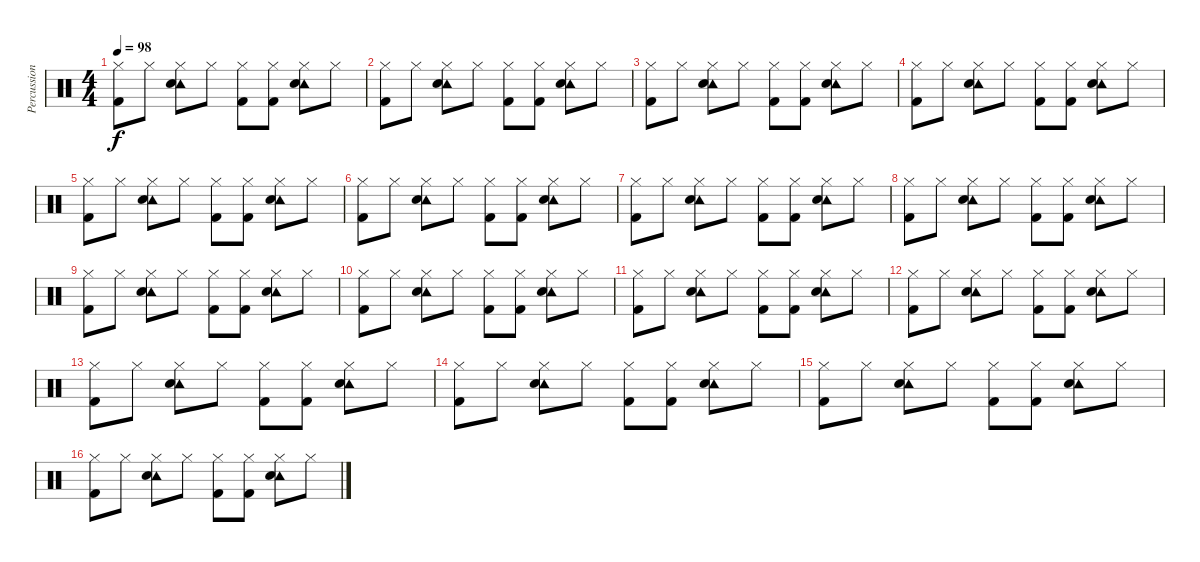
\track ("Percussion" "Percussion") {instrument percussion}
\staff {score}
\articulation defaults
\ts (4 4)
\tempo 98
\clef neutral
\ks c
("Hi-Hat (closed)" "Kick (hit) 2").8{dy f} "Hi-Hat (closed)".8 ("Tambourine (hit)" "Hi-Hat (closed)" "Snare (hit) 2").8 "Hi-Hat (closed)".8 ("Hi-Hat (closed)" "Kick (hit) 2").8 ("Hi-Hat (closed)" "Kick (hit) 2").8 ("Tambourine (hit)" "Hi-Hat (closed)" "Snare (hit) 2").8 "Hi-Hat (closed)".8 |
("Hi-Hat (closed)" "Kick (hit) 2").8 "Hi-Hat (closed)".8 ("Tambourine (hit)" "Hi-Hat (closed)" "Snare (hit) 2").8 "Hi-Hat (closed)".8 ("Hi-Hat (closed)" "Kick (hit) 2").8 ("Hi-Hat (closed)" "Kick (hit) 2").8 ("Tambourine (hit)" "Hi-Hat (closed)" "Snare (hit) 2").8 "Hi-Hat (closed)".8 |
("Hi-Hat (closed)" "Kick (hit) 2").8 "Hi-Hat (closed)".8 ("Tambourine (hit)" "Hi-Hat (closed)" "Snare (hit) 2").8 "Hi-Hat (closed)".8 ("Hi-Hat (closed)" "Kick (hit) 2").8 ("Hi-Hat (closed)" "Kick (hit) 2").8 ("Tambourine (hit)" "Hi-Hat (closed)" "Snare (hit) 2").8 "Hi-Hat (closed)".8 |
("Hi-Hat (closed)" "Kick (hit) 2").8 "Hi-Hat (closed)".8 ("Tambourine (hit)" "Hi-Hat (closed)" "Snare (hit) 2").8 "Hi-Hat (closed)".8 ("Hi-Hat (closed)" "Kick (hit) 2").8 ("Hi-Hat (closed)" "Kick (hit) 2").8 ("Tambourine (hit)" "Hi-Hat (closed)" "Snare (hit) 2").8 "Hi-Hat (closed)".8 |
("Hi-Hat (closed)" "Kick (hit) 2").8 "Hi-Hat (closed)".8 ("Tambourine (hit)" "Hi-Hat (closed)" "Snare (hit) 2").8 "Hi-Hat (closed)".8 ("Hi-Hat (closed)" "Kick (hit) 2").8 ("Hi-Hat (closed)" "Kick (hit) 2").8 ("Tambourine (hit)" "Hi-Hat (closed)" "Snare (hit) 2").8 "Hi-Hat (closed)".8 |
("Hi-Hat (closed)" "Kick (hit) 2").8 "Hi-Hat (closed)".8 ("Tambourine (hit)" "Hi-Hat (closed)" "Snare (hit) 2").8 "Hi-Hat (closed)".8 ("Hi-Hat (closed)" "Kick (hit) 2").8 ("Hi-Hat (closed)" "Kick (hit) 2").8 ("Tambourine (hit)" "Hi-Hat (closed)" "Snare (hit) 2").8 "Hi-Hat (closed)".8 |
("Hi-Hat (closed)" "Kick (hit) 2").8 "Hi-Hat (closed)".8 ("Tambourine (hit)" "Hi-Hat (closed)" "Snare (hit) 2").8 "Hi-Hat (closed)".8 ("Hi-Hat (closed)" "Kick (hit) 2").8 ("Hi-Hat (closed)" "Kick (hit) 2").8 ("Tambourine (hit)" "Hi-Hat (closed)" "Snare (hit) 2").8 "Hi-Hat (closed)".8 |
("Hi-Hat (closed)" "Kick (hit) 2").8 "Hi-Hat (closed)".8 ("Tambourine (hit)" "Hi-Hat (closed)" "Snare (hit) 2").8 "Hi-Hat (closed)".8 ("Hi-Hat (closed)" "Kick (hit) 2").8 ("Hi-Hat (closed)" "Kick (hit) 2").8 ("Tambourine (hit)" "Hi-Hat (closed)" "Snare (hit) 2").8 "Hi-Hat (closed)".8 |
("Hi-Hat (closed)" "Kick (hit) 2").8 "Hi-Hat (closed)".8 ("Tambourine (hit)" "Hi-Hat (closed)" "Snare (hit) 2").8 "Hi-Hat (closed)".8 ("Hi-Hat (closed)" "Kick (hit) 2").8 ("Hi-Hat (closed)" "Kick (hit) 2").8 ("Tambourine (hit)" "Hi-Hat (closed)" "Snare (hit) 2").8 "Hi-Hat (closed)".8 |
("Hi-Hat (closed)" "Kick (hit) 2").8 "Hi-Hat (closed)".8 ("Tambourine (hit)" "Hi-Hat (closed)" "Snare (hit) 2").8 "Hi-Hat (closed)".8 ("Hi-Hat (closed)" "Kick (hit) 2").8 ("Hi-Hat (closed)" "Kick (hit) 2").8 ("Tambourine (hit)" "Hi-Hat (closed)" "Snare (hit) 2").8 "Hi-Hat (closed)".8 |
("Hi-Hat (closed)" "Kick (hit) 2").8 "Hi-Hat (closed)".8 ("Tambourine (hit)" "Hi-Hat (closed)" "Snare (hit) 2").8 "Hi-Hat (closed)".8 ("Hi-Hat (closed)" "Kick (hit) 2").8 ("Hi-Hat (closed)" "Kick (hit) 2").8 ("Tambourine (hit)" "Hi-Hat (closed)" "Snare (hit) 2").8 "Hi-Hat (closed)".8 |
("Hi-Hat (closed)" "Kick (hit) 2").8 "Hi-Hat (closed)".8 ("Tambourine (hit)" "Hi-Hat (closed)" "Snare (hit) 2").8 "Hi-Hat (closed)".8 ("Hi-Hat (closed)" "Kick (hit) 2").8 ("Hi-Hat (closed)" "Kick (hit) 2").8 ("Tambourine (hit)" "Hi-Hat (closed)" "Snare (hit) 2").8 "Hi-Hat (closed)".8 |
("Hi-Hat (closed)" "Kick (hit) 2").8 "Hi-Hat (closed)".8 ("Tambourine (hit)" "Hi-Hat (closed)" "Snare (hit) 2").8 "Hi-Hat (closed)".8 ("Hi-Hat (closed)" "Kick (hit) 2").8 ("Hi-Hat (closed)" "Kick (hit) 2").8 ("Tambourine (hit)" "Hi-Hat (closed)" "Snare (hit) 2").8 "Hi-Hat (closed)".8 |
("Hi-Hat (closed)" "Kick (hit) 2").8 "Hi-Hat (closed)".8 ("Tambourine (hit)" "Hi-Hat (closed)" "Snare (hit) 2").8 "Hi-Hat (closed)".8 ("Hi-Hat (closed)" "Kick (hit) 2").8 ("Hi-Hat (closed)" "Kick (hit) 2").8 ("Tambourine (hit)" "Hi-Hat (closed)" "Snare (hit) 2").8 "Hi-Hat (closed)".8 |
("Hi-Hat (closed)" "Kick (hit) 2").8 "Hi-Hat (closed)".8 ("Tambourine (hit)" "Hi-Hat (closed)" "Snare (hit) 2").8 "Hi-Hat (closed)".8 ("Hi-Hat (closed)" "Kick (hit) 2").8 ("Hi-Hat (closed)" "Kick (hit) 2").8 ("Tambourine (hit)" "Hi-Hat (closed)" "Snare (hit) 2").8 "Hi-Hat (closed)".8 |
("Hi-Hat (closed)" "Kick (hit) 2").8 "Hi-Hat (closed)".8 ("Tambourine (hit)" "Hi-Hat (closed)" "Snare (hit) 2").8 "Hi-Hat (closed)".8 ("Hi-Hat (closed)" "Kick (hit) 2").8 ("Hi-Hat (closed)" "Kick (hit) 2").8 ("Tambourine (hit)" "Hi-Hat (closed)" "Snare (hit) 2").8 "Hi-Hat (closed)".8
